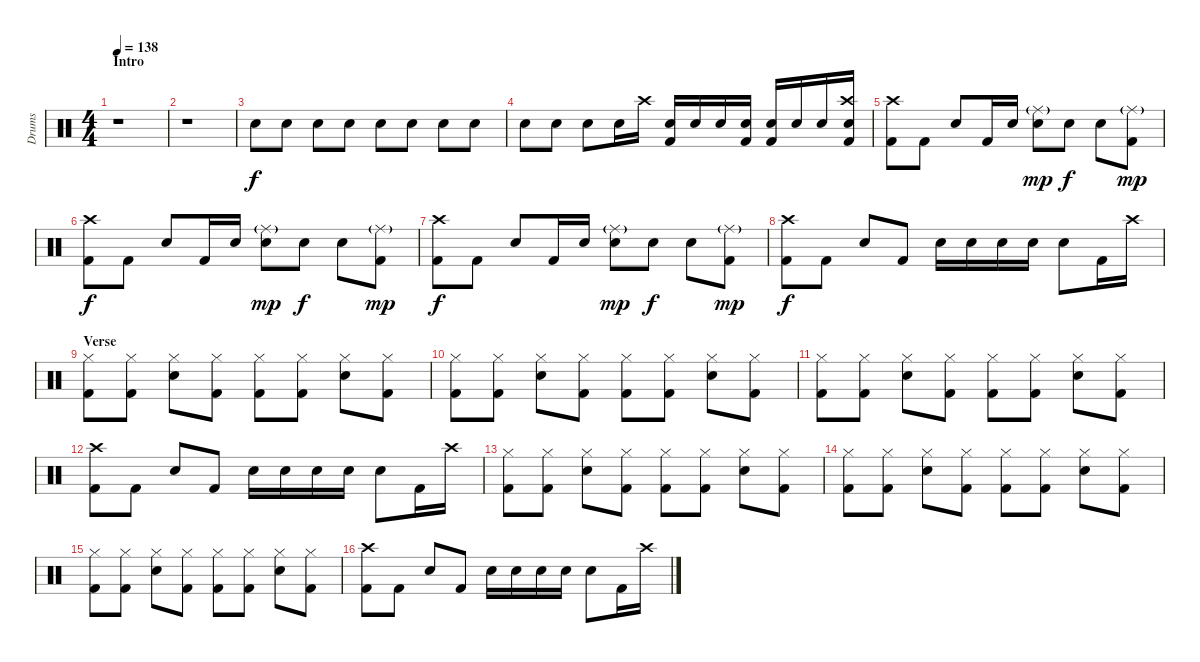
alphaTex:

\track ("Drums" "Drums") {instrument percussion}
\staff {score}
\articulation defaults
\ts (4 4)
\section ("" "Intro")
\tempo 138
\clef neutral
\ks c
r.1{dy f} |
r.1 |
"Electric Snare (hit)".8{volume 12} "Electric Snare (hit)".8 "Electric Snare (hit)".8 "Electric Snare (hit)".8 "Electric Snare (hit)".8 "Electric Snare (hit)".8 "Electric Snare (hit)".8 "Electric Snare (hit)".8 |
"Electric Snare (hit)".8 "Electric Snare (hit)".8 "Electric Snare (hit)".8 "Electric Snare (hit)".16 "Crash high (hit)".16 ("Electric Snare (hit)" "Kick (hit) 2").16 "Electric Snare (hit)".16 "Electric Snare (hit)".16 ("Electric Snare (hit)" "Kick (hit) 2").16 ("Electric Snare (hit)" "Kick (hit) 2").16 "Electric Snare (hit)".16 "Electric Snare (hit)".16 ("Crash high (hit)" "Electric Snare (hit)" "Kick (hit) 2").16 |
("Crash high (hit)" "Kick (hit) 2").8 "Kick (hit) 2".8 "Electric Snare (hit)".8 "Kick (hit) 2".16 "Electric Snare (hit)".16 ("Ride (middle)"{g} "Electric Snare (hit)").8{dy mp} "Electric Snare (hit)".8{dy f} "Electric Snare (hit)".8 ("Ride (middle)"{g} "Kick (hit) 2").8{dy mp} |
("Crash high (hit)" "Kick (hit) 2").8{dy f} "Kick (hit) 2".8 "Electric Snare (hit)".8 "Kick (hit) 2".16 "Electric Snare (hit)".16 ("Ride (middle)"{g} "Electric Snare (hit)").8{dy mp} "Electric Snare (hit)".8{dy f} "Electric Snare (hit)".8 ("Ride (middle)"{g} "Kick (hit) 2").8{dy mp} |
("Crash high (hit)" "Kick (hit) 2").8{dy f} "Kick (hit) 2".8 "Electric Snare (hit)".8 "Kick (hit) 2".16 "Electric Snare (hit)".16 ("Ride (middle)"{g} "Electric Snare (hit)").8{dy mp} "Electric Snare (hit)".8{dy f} "Electric Snare (hit)".8 ("Ride (middle)"{g} "Kick (hit) 2").8{dy mp} |
("Crash high (hit)" "Kick (hit) 2").8{dy f} "Kick (hit) 2".8 "Electric Snare (hit)".8 "Kick (hit) 2".8 "Electric Snare (hit)".16 "Electric Snare (hit)".16 "Electric Snare (hit)".16 "Electric Snare (hit)".16 "Electric Snare (hit)".8 "Kick (hit) 2".16 "Crash high (hit)".16 |
\section ("" "Verse")
("Hi-Hat (closed)" "Kick (hit) 2").8 ("Hi-Hat (closed)" "Kick (hit) 2").8 ("Hi-Hat (closed)" "Electric Snare (hit)").8 ("Hi-Hat (closed)" "Kick (hit) 2").8 ("Hi-Hat (closed)" "Kick (hit) 2").8 ("Hi-Hat (closed)" "Kick (hit) 2").8 ("Hi-Hat (closed)" "Electric Snare (hit)").8 ("Hi-Hat (closed)" "Kick (hit) 2").8 |
("Hi-Hat (closed)" "Kick (hit) 2").8 ("Hi-Hat (closed)" "Kick (hit) 2").8 ("Hi-Hat (closed)" "Electric Snare (hit)").8 ("Hi-Hat (closed)" "Kick (hit) 2").8 ("Hi-Hat (closed)" "Kick (hit) 2").8 ("Hi-Hat (closed)" "Kick (hit) 2").8 ("Hi-Hat (closed)" "Electric Snare (hit)").8 ("Hi-Hat (closed)" "Kick (hit) 2").8 |
("Hi-Hat (closed)" "Kick (hit) 2").8 ("Hi-Hat (closed)" "Kick (hit) 2").8 ("Hi-Hat (closed)" "Electric Snare (hit)").8 ("Hi-Hat (closed)" "Kick (hit) 2").8 ("Hi-Hat (closed)" "Kick (hit) 2").8 ("Hi-Hat (closed)" "Kick (hit) 2").8 ("Hi-Hat (closed)" "Electric Snare (hit)").8 ("Hi-Hat (closed)" "Kick (hit) 2").8 |
("Crash high (hit)" "Kick (hit) 2").8 "Kick (hit) 2".8 "Electric Snare (hit)".8 "Kick (hit) 2".8 "Electric Snare (hit)".16 "Electric Snare (hit)".16 "Electric Snare (hit)".16 "Electric Snare (hit)".16 "Electric Snare (hit)".8 "Kick (hit) 2".16 "Crash high (hit)".16 |
("Hi-Hat (closed)" "Kick (hit) 2").8 ("Hi-Hat (closed)" "Kick (hit) 2").8 ("Hi-Hat (closed)" "Electric Snare (hit)").8 ("Hi-Hat (closed)" "Kick (hit) 2").8 ("Hi-Hat (closed)" "Kick (hit) 2").8 ("Hi-Hat (closed)" "Kick (hit) 2").8 ("Hi-Hat (closed)" "Electric Snare (hit)").8 ("Hi-Hat (closed)" "Kick (hit) 2").8 |
("Hi-Hat (closed)" "Kick (hit) 2").8 ("Hi-Hat (closed)" "Kick (hit) 2").8 ("Hi-Hat (closed)" "Electric Snare (hit)").8 ("Hi-Hat (closed)" "Kick (hit) 2").8 ("Hi-Hat (closed)" "Kick (hit) 2").8 ("Hi-Hat (closed)" "Kick (hit) 2").8 ("Hi-Hat (closed)" "Electric Snare (hit)").8 ("Hi-Hat (closed)" "Kick (hit) 2").8 |
("Hi-Hat (closed)" "Kick (hit) 2").8 ("Hi-Hat (closed)" "Kick (hit) 2").8 ("Hi-Hat (closed)" "Electric Snare (hit)").8 ("Hi-Hat (closed)" "Kick (hit) 2").8 ("Hi-Hat (closed)" "Kick (hit) 2").8 ("Hi-Hat (closed)" "Kick (hit) 2").8 ("Hi-Hat (closed)" "Electric Snare (hit)").8 ("Hi-Hat (closed)" "Kick (hit) 2").8 |
("Crash high (hit)" "Kick (hit) 2").8 "Kick (hit) 2".8 "Electric Snare (hit)".8 "Kick (hit) 2".8 "Electric Snare (hit)".16 "Electric Snare (hit)".16 "Electric Snare (hit)".16 "Electric Snare (hit)".16 "Electric Snare (hit)".8 "Kick (hit) 2".16 "Crash high (hit)".16
